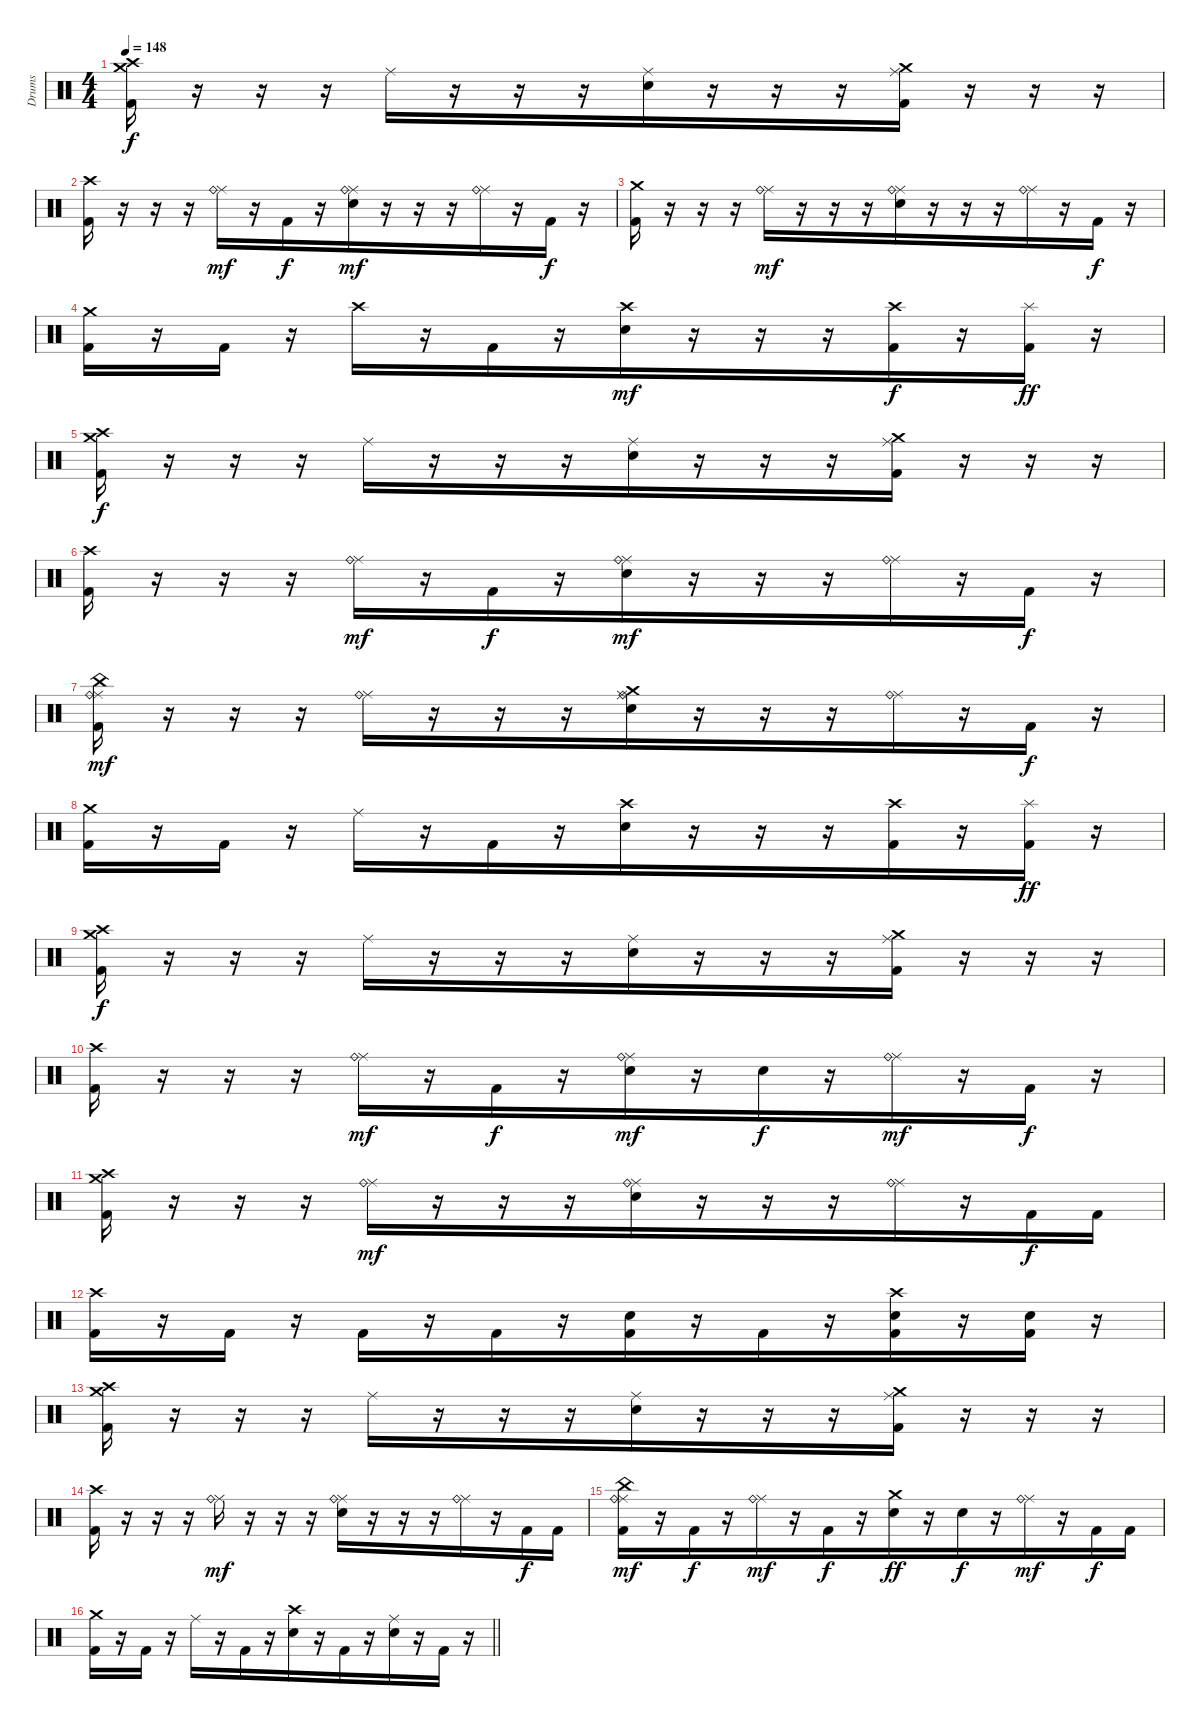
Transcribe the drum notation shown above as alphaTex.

\track ("Drums" "Drums") {instrument percussion}
\staff {score}
\articulation defaults
\ts (4 4)
\tempo 148
\clef neutral
\ks c
("Crash medium (hit)" "Crash high (hit)" "Kick (hit) 2").16{dy f} r.16{beam merge} r.16{beam merge} r.16 "Ride (middle)".16{beam merge} r.16{beam merge} r.16{beam merge} r.16 ("Ride (middle)" "Snare (hit) 2").16{beam merge} r.16{beam merge} r.16{beam merge} r.16 ("Crash medium (hit)" "Ride (middle)" "Kick (hit) 2").16 r.16 r.16 r.16 |
("Crash high (hit)" "Kick (hit) 2").16 r.16 r.16 r.16 ("Ride (middle)" "Ride (bell)").16{dy mf} r.16 "Kick (hit) 2".16{dy f beam merge} r.16{beam merge} ("Ride (middle)" "Ride (bell)" "Snare (hit) 2").16{dy mf beam merge} r.16 r.16{beam merge} r.16 ("Ride (middle)" "Ride (bell)").16{beam merge} r.16 "Kick (hit) 2".16{dy f} r.16 |
("Crash medium (hit)" "Kick (hit) 2").16 r.16{beam merge} r.16{beam merge} r.16 ("Ride (middle)" "Ride (bell)").16{dy mf beam merge} r.16{beam merge} r.16{beam merge} r.16 ("Ride (middle)" "Ride (bell)" "Snare (hit) 2").16{beam merge} r.16{beam merge} r.16{beam merge} r.16 ("Ride (middle)" "Ride (bell)").16 r.16 "Kick (hit) 2".16{dy f} r.16 |
("Crash medium (hit)" "Kick (hit) 2").16 r.16 "Kick (hit) 2".16 r.16 "Crash high (hit)".16 r.16 "Kick (hit) 2".16{beam merge} r.16{beam merge} ("Crash high (hit)" "Snare (hit) 2").16{dy mf beam merge} r.16 r.16{beam merge} r.16 ("Crash high (hit)" "Kick (hit) 2").16{dy f beam merge} r.16 ("Splash (hit)" "Kick (hit) 2").16{dy ff} r.16 |
("Crash medium (hit)" "Crash high (hit)" "Kick (hit) 2").16{dy f} r.16{beam merge} r.16{beam merge} r.16 "Ride (middle)".16{beam merge} r.16{beam merge} r.16{beam merge} r.16 ("Ride (middle)" "Snare (hit) 2").16{beam merge} r.16{beam merge} r.16{beam merge} r.16 ("Crash medium (hit)" "Ride (middle)" "Kick (hit) 2").16 r.16 r.16 r.16 |
("Crash high (hit)" "Kick (hit) 2").16 r.16 r.16 r.16 ("Ride (middle)" "Ride (bell)").16{dy mf} r.16 "Kick (hit) 2".16{dy f beam merge} r.16{beam merge} ("Ride (middle)" "Ride (bell)" "Snare (hit) 2").16{dy mf beam merge} r.16 r.16{beam merge} r.16 ("Ride (middle)" "Ride (bell)").16{beam merge} r.16 "Kick (hit) 2".16{dy f} r.16 |
("China (hit)" "Ride (middle)" "Ride (bell)" "Kick (hit) 2").16{dy mf} r.16{beam merge} r.16{beam merge} r.16 ("Ride (middle)" "Ride (bell)").16{beam merge} r.16{beam merge} r.16{beam merge} r.16 ("Crash medium (hit)" "Ride (middle)" "Ride (bell)" "Snare (hit) 2").16{beam merge} r.16{beam merge} r.16{beam merge} r.16 ("Ride (middle)" "Ride (bell)").16 r.16 "Kick (hit) 2".16{dy f} r.16 |
("Crash medium (hit)" "Kick (hit) 2").16 r.16 "Kick (hit) 2".16 r.16 "Ride (middle)".16 r.16 "Kick (hit) 2".16{beam merge} r.16{beam merge} ("Crash high (hit)" "Snare (hit) 2").16{beam merge} r.16 r.16{beam merge} r.16 ("Crash high (hit)" "Kick (hit) 2").16{beam merge} r.16 ("Splash (hit)" "Kick (hit) 2").16{dy ff} r.16 |
("Crash medium (hit)" "Crash high (hit)" "Kick (hit) 2").16{dy f} r.16{beam merge} r.16{beam merge} r.16 "Ride (middle)".16{beam merge} r.16{beam merge} r.16{beam merge} r.16 ("Ride (middle)" "Snare (hit) 2").16{beam merge} r.16{beam merge} r.16{beam merge} r.16 ("Crash medium (hit)" "Ride (middle)" "Kick (hit) 2").16 r.16 r.16 r.16 |
("Crash high (hit)" "Kick (hit) 2").16 r.16 r.16 r.16 ("Ride (middle)" "Ride (bell)").16{dy mf} r.16 "Kick (hit) 2".16{dy f beam merge} r.16{beam merge} ("Ride (middle)" "Ride (bell)" "Snare (hit) 2").16{dy mf beam merge} r.16 "Snare (hit) 2".16{dy f beam merge} r.16 ("Ride (middle)" "Ride (bell)").16{dy mf beam merge} r.16 "Kick (hit) 2".16{dy f} r.16 |
("Crash medium (hit)" "Crash high (hit)" "Kick (hit) 2").16 r.16{beam merge} r.16{beam merge} r.16 ("Ride (middle)" "Ride (bell)").16{dy mf beam merge} r.16{beam merge} r.16{beam merge} r.16 ("Ride (middle)" "Ride (bell)" "Snare (hit) 2").16{beam merge} r.16{beam merge} r.16{beam merge} r.16 ("Ride (middle)" "Ride (bell)").16 r.16 "Kick (hit) 2".16{dy f} "Kick (hit) 2".16 |
("Crash high (hit)" "Kick (hit) 2").16 r.16 "Kick (hit) 2".16 r.16 "Kick (hit) 2".16 r.16 "Kick (hit) 2".16{beam merge} r.16{beam merge} ("Snare (hit) 2" "Kick (hit) 2").16{beam merge} r.16 "Kick (hit) 2".16{beam merge} r.16 ("Crash high (hit)" "Snare (hit) 2" "Kick (hit) 2").16{beam merge} r.16 ("Snare (hit) 2" "Kick (hit) 2").16 r.16 |
("Crash medium (hit)" "Crash high (hit)" "Kick (hit) 2").16 r.16{beam merge} r.16{beam merge} r.16 "Ride (middle)".16{beam merge} r.16{beam merge} r.16{beam merge} r.16 ("Ride (middle)" "Snare (hit) 2").16{beam merge} r.16{beam merge} r.16{beam merge} r.16 ("Crash medium (hit)" "Ride (middle)" "Kick (hit) 2").16 r.16 r.16 r.16 |
("Crash high (hit)" "Kick (hit) 2").16 r.16 r.16 r.16 ("Ride (middle)" "Ride (bell)").16{dy mf} r.16 r.16{beam merge} r.16{beam merge} ("Ride (middle)" "Ride (bell)" "Snare (hit) 2").16{beam merge} r.16 r.16{beam merge} r.16 ("Ride (middle)" "Ride (bell)").16{beam merge} r.16 "Kick (hit) 2".16{dy f} "Kick (hit) 2".16 |
("China (hit)" "Ride (middle)" "Ride (bell)" "Kick (hit) 2").16{dy mf} r.16{beam merge} "Kick (hit) 2".16{dy f beam merge} r.16 ("Ride (middle)" "Ride (bell)").16{dy mf beam merge} r.16{beam merge} "Kick (hit) 2".16{dy f beam merge} r.16 ("Crash medium (hit)" "Snare (hit) 2").16{dy ff beam merge} r.16{beam merge} "Snare (hit) 2".16{dy f beam merge} r.16 ("Ride (middle)" "Ride (bell)").16{dy mf} r.16 "Kick (hit) 2".16{dy f} "Kick (hit) 2".16 |
\barLineRight lightlight
("Crash medium (hit)" "Kick (hit) 2").16 r.16 "Kick (hit) 2".16 r.16 "Ride (middle)".16 r.16 "Kick (hit) 2".16{beam merge} r.16{beam merge} ("Crash high (hit)" "Snare (hit) 2").16{beam merge} r.16 "Kick (hit) 2".16{beam merge} r.16 ("Ride (middle)" "Snare (hit) 2").16{beam merge} r.16 "Kick (hit) 2".16 r.16
